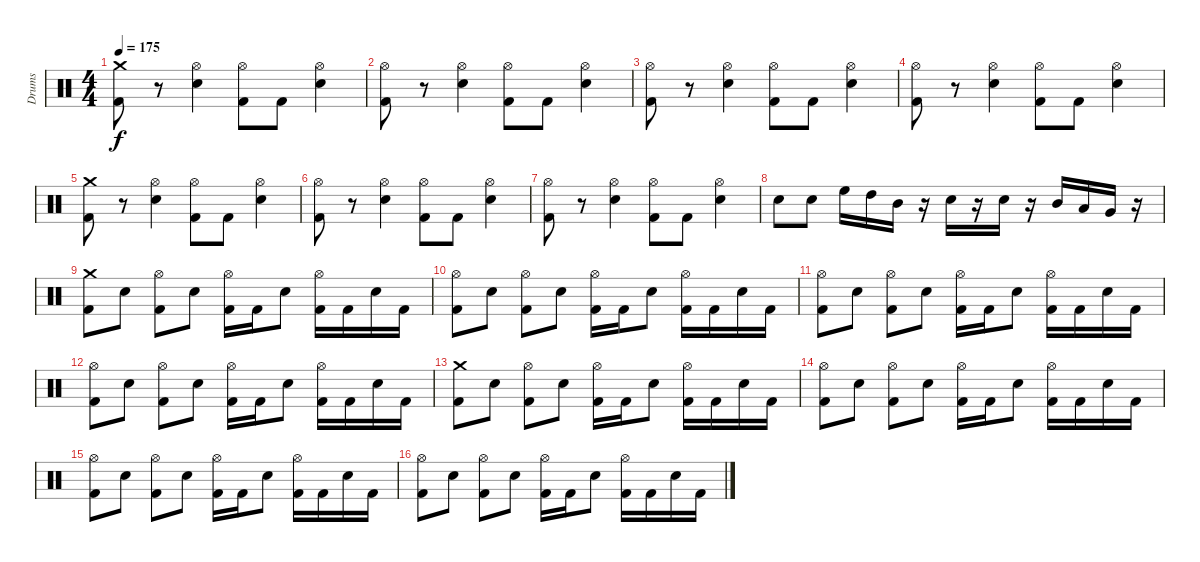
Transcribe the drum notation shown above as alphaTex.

\track ("Drums" "Drums") {instrument percussion}
\staff {score}
\articulation defaults
\ts (4 4)
\tempo 175
\clef neutral
\ks c
("Kick (hit) 2" "Crash medium (hit)").8{dy f} r.8 ("Hi-Hat (open)" "Electric Snare (hit)").4 ("Hi-Hat (open)" "Kick (hit) 2").8 "Kick (hit) 2".8 ("Hi-Hat (open)" "Electric Snare (hit)").4 |
("Hi-Hat (open)" "Kick (hit) 2").8 r.8 ("Hi-Hat (open)" "Electric Snare (hit)").4 ("Hi-Hat (open)" "Kick (hit) 2").8 "Kick (hit) 2".8 ("Hi-Hat (open)" "Electric Snare (hit)").4 |
("Hi-Hat (open)" "Kick (hit) 2").8 r.8 ("Hi-Hat (open)" "Electric Snare (hit)").4 ("Hi-Hat (open)" "Kick (hit) 2").8 "Kick (hit) 2".8 ("Hi-Hat (open)" "Electric Snare (hit)").4 |
("Hi-Hat (open)" "Kick (hit) 2").8 r.8 ("Hi-Hat (open)" "Electric Snare (hit)").4 ("Hi-Hat (open)" "Kick (hit) 2").8 "Kick (hit) 2".8 ("Hi-Hat (open)" "Electric Snare (hit)").4 |
("Kick (hit) 2" "Crash medium (hit)").8 r.8 ("Hi-Hat (open)" "Electric Snare (hit)").4 ("Hi-Hat (open)" "Kick (hit) 2").8 "Kick (hit) 2".8 ("Hi-Hat (open)" "Electric Snare (hit)").4 |
("Hi-Hat (open)" "Kick (hit) 2").8 r.8 ("Hi-Hat (open)" "Electric Snare (hit)").4 ("Hi-Hat (open)" "Kick (hit) 2").8 "Kick (hit) 2".8 ("Hi-Hat (open)" "Electric Snare (hit)").4 |
("Hi-Hat (open)" "Kick (hit) 2").8 r.8 ("Hi-Hat (open)" "Electric Snare (hit)").4 ("Hi-Hat (open)" "Kick (hit) 2").8 "Kick (hit) 2".8 ("Electric Snare (hit)" "Hi-Hat (open)").4 |
"Electric Snare (hit)".8 "Electric Snare (hit)".8 "High Floor Tom (hit)".16 "High Tom (hit)".16 "Mid Tom (hit)".16 r.16 "Electric Snare (hit)".16 r.16 "Electric Snare (hit)".16 r.16 "Mid Tom (hit)".16 "Low Tom (hit)".16 "Very Low Tom (hit)".16 r.16 |
("Crash medium (hit)" "Kick (hit) 2").8 "Electric Snare (hit)".8 ("Hi-Hat (open)" "Kick (hit) 2").8 "Electric Snare (hit)".8 ("Hi-Hat (open)" "Kick (hit) 2").16 "Kick (hit) 2".16 "Electric Snare (hit)".8 ("Hi-Hat (open)" "Kick (hit) 2").16 "Kick (hit) 2".16 "Electric Snare (hit)".16 "Kick (hit) 2".16 |
("Hi-Hat (open)" "Kick (hit) 2").8 "Electric Snare (hit)".8 ("Hi-Hat (open)" "Kick (hit) 2").8 "Electric Snare (hit)".8 ("Hi-Hat (open)" "Kick (hit) 2").16 "Kick (hit) 2".16 "Electric Snare (hit)".8 ("Hi-Hat (open)" "Kick (hit) 2").16 "Kick (hit) 2".16 "Electric Snare (hit)".16 "Kick (hit) 2".16 |
("Hi-Hat (open)" "Kick (hit) 2").8 "Electric Snare (hit)".8 ("Hi-Hat (open)" "Kick (hit) 2").8 "Electric Snare (hit)".8 ("Hi-Hat (open)" "Kick (hit) 2").16 "Kick (hit) 2".16 "Electric Snare (hit)".8 ("Hi-Hat (open)" "Kick (hit) 2").16 "Kick (hit) 2".16 "Electric Snare (hit)".16 "Kick (hit) 2".16 |
("Hi-Hat (open)" "Kick (hit) 2").8 "Electric Snare (hit)".8 ("Hi-Hat (open)" "Kick (hit) 2").8 "Electric Snare (hit)".8 ("Hi-Hat (open)" "Kick (hit) 2").16 "Kick (hit) 2".16 "Electric Snare (hit)".8 ("Hi-Hat (open)" "Kick (hit) 2").16 "Kick (hit) 2".16 "Electric Snare (hit)".16 "Kick (hit) 2".16 |
("Crash medium (hit)" "Kick (hit) 2").8 "Electric Snare (hit)".8 ("Hi-Hat (open)" "Kick (hit) 2").8 "Electric Snare (hit)".8 ("Hi-Hat (open)" "Kick (hit) 2").16 "Kick (hit) 2".16 "Electric Snare (hit)".8 ("Hi-Hat (open)" "Kick (hit) 2").16 "Kick (hit) 2".16 "Electric Snare (hit)".16 "Kick (hit) 2".16 |
("Hi-Hat (open)" "Kick (hit) 2").8 "Electric Snare (hit)".8 ("Hi-Hat (open)" "Kick (hit) 2").8 "Electric Snare (hit)".8 ("Hi-Hat (open)" "Kick (hit) 2").16 "Kick (hit) 2".16 "Electric Snare (hit)".8 ("Hi-Hat (open)" "Kick (hit) 2").16 "Kick (hit) 2".16 "Electric Snare (hit)".16 "Kick (hit) 2".16 |
("Hi-Hat (open)" "Kick (hit) 2").8 "Electric Snare (hit)".8 ("Hi-Hat (open)" "Kick (hit) 2").8 "Electric Snare (hit)".8 ("Hi-Hat (open)" "Kick (hit) 2").16 "Kick (hit) 2".16 "Electric Snare (hit)".8 ("Hi-Hat (open)" "Kick (hit) 2").16 "Kick (hit) 2".16 "Electric Snare (hit)".16 "Kick (hit) 2".16 |
("Hi-Hat (open)" "Kick (hit) 2").8 "Electric Snare (hit)".8 ("Hi-Hat (open)" "Kick (hit) 2").8 "Electric Snare (hit)".8 ("Hi-Hat (open)" "Kick (hit) 2").16 "Kick (hit) 2".16 "Electric Snare (hit)".8 ("Hi-Hat (open)" "Kick (hit) 2").16 "Kick (hit) 2".16 "Electric Snare (hit)".16 "Kick (hit) 2".16
